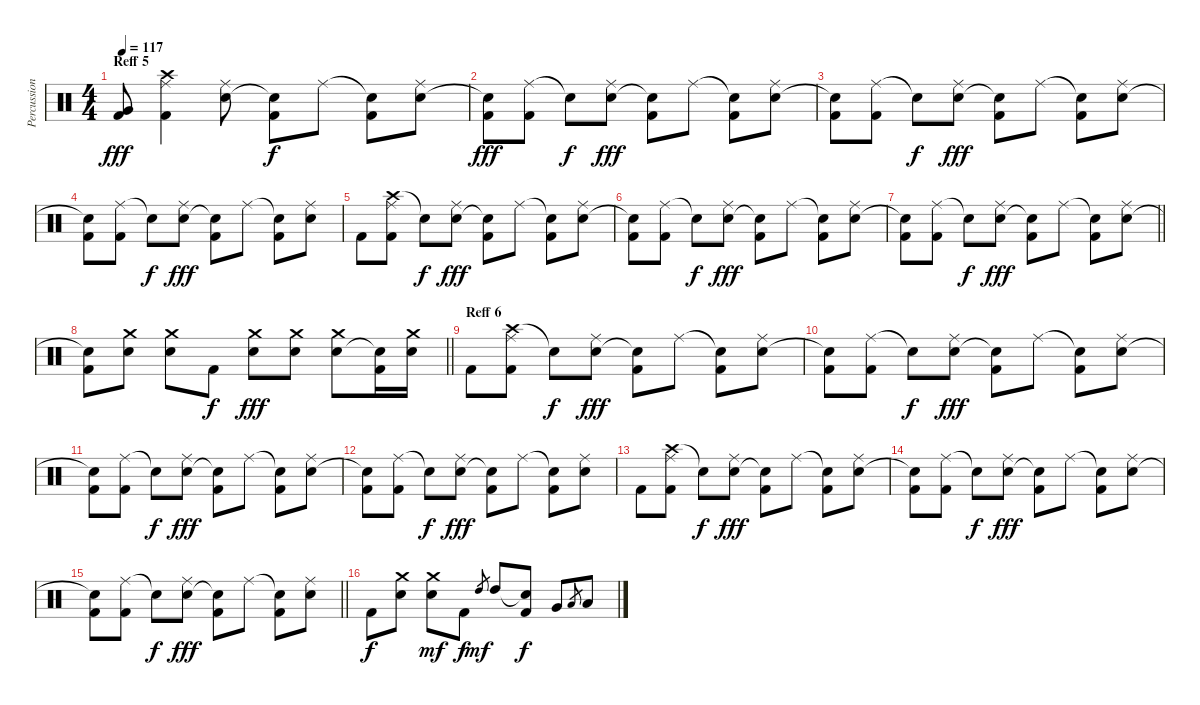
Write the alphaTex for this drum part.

\track ("Percussion 1" "Percussion") {instrument percussion}
\staff {score}
\articulation defaults
\ts (4 4)
\section ("" "Reff 5")
\tempo 117
\clef neutral
\ks c
("Very Low Tom (hit)" "Kick (hit) 2").8{dy fff} ("Crash high (hit)" "Ride (middle)" "Kick (hit) 2").4 ("Electric Snare (hit)" "Ride (middle)").8 ("Snare (hit)"{t} "Kick (hit) 2").8{dy f} "Ride (middle)".8 ("Snare (hit)"{t} "Kick (hit) 2").8 ("Electric Snare (hit)" "Ride (middle)").8 |
("Snare (hit)"{t} "Kick (hit) 2").8{dy fff} ("Ride (middle)" "Kick (hit) 2").8 "Snare (hit)"{t}.8{dy f} ("Electric Snare (hit)" "Ride (middle)").8{dy fff} ("Snare (hit)"{t} "Kick (hit) 2").8 "Ride (middle)".8 ("Snare (hit)"{t} "Kick (hit) 2").8 ("Electric Snare (hit)" "Ride (middle)").8 |
("Snare (hit)"{t} "Kick (hit) 2").8 ("Ride (middle)" "Kick (hit) 2").8 "Snare (hit)"{t}.8{dy f} ("Electric Snare (hit)" "Ride (middle)").8{dy fff} ("Snare (hit)"{t} "Kick (hit) 2").8 "Ride (middle)".8 ("Snare (hit)"{t} "Kick (hit) 2").8 ("Electric Snare (hit)" "Ride (middle)").8 |
("Snare (hit)"{t} "Kick (hit) 2").8 ("Ride (middle)" "Kick (hit) 2").8 "Snare (hit)"{t}.8{dy f} ("Electric Snare (hit)" "Ride (middle)").8{dy fff} ("Snare (hit)"{t} "Kick (hit) 2").8 "Ride (middle)".8 ("Snare (hit)"{t} "Kick (hit) 2").8 ("Electric Snare (hit)" "Ride (middle)").8 |
"Kick (hit) 2".8 ("Crash high (hit)" "Ride (middle)" "Kick (hit) 2").8 "Snare (hit)"{t}.8{dy f} ("Electric Snare (hit)" "Ride (middle)").8{dy fff} ("Snare (hit)"{t} "Kick (hit) 2").8 "Ride (middle)".8 ("Snare (hit)"{t} "Kick (hit) 2").8 ("Electric Snare (hit)" "Ride (middle)").8 |
("Snare (hit)"{t} "Kick (hit) 2").8 ("Ride (middle)" "Kick (hit) 2").8 "Snare (hit)"{t}.8{dy f} ("Electric Snare (hit)" "Ride (middle)").8{dy fff} ("Snare (hit)"{t} "Kick (hit) 2").8 "Ride (middle)".8 ("Snare (hit)"{t} "Kick (hit) 2").8 ("Electric Snare (hit)" "Ride (middle)").8 |
\barLineRight lightlight
("Snare (hit)"{t} "Kick (hit) 2").8 ("Ride (middle)" "Kick (hit) 2").8 "Snare (hit)"{t}.8{dy f} ("Electric Snare (hit)" "Ride (middle)").8{dy fff} ("Snare (hit)"{t} "Kick (hit) 2").8 "Ride (middle)".8 ("Snare (hit)"{t} "Kick (hit) 2").8 ("Electric Snare (hit)" "Ride (middle)").8 |
\barLineRight lightlight
("Snare (hit)"{t} "Kick (hit) 2").8 ("Electric Snare (hit)" "Crash medium (hit)").8 ("Electric Snare (hit)" "Crash medium (hit)").8 "Kick (hit) 2".8{dy f} ("Electric Snare (hit)" "Crash medium (hit)").8{dy fff} ("Electric Snare (hit)" "Crash medium (hit)").8 ("Electric Snare (hit)" "Crash medium (hit)").8 ("Snare (hit)"{t} "Kick (hit) 2").16 ("Electric Snare (hit)" "Crash medium (hit)").16 |
\section ("" "Reff 6")
"Kick (hit) 2".8 ("Crash high (hit)" "Ride (middle)" "Kick (hit) 2").8 "Snare (hit)"{t}.8{dy f} ("Electric Snare (hit)" "Ride (middle)").8{dy fff} ("Snare (hit)"{t} "Kick (hit) 2").8 "Ride (middle)".8 ("Snare (hit)"{t} "Kick (hit) 2").8 ("Electric Snare (hit)" "Ride (middle)").8 |
("Snare (hit)"{t} "Kick (hit) 2").8 ("Ride (middle)" "Kick (hit) 2").8 "Snare (hit)"{t}.8{dy f} ("Electric Snare (hit)" "Ride (middle)").8{dy fff} ("Snare (hit)"{t} "Kick (hit) 2").8 "Ride (middle)".8 ("Snare (hit)"{t} "Kick (hit) 2").8 ("Electric Snare (hit)" "Ride (middle)").8 |
("Snare (hit)"{t} "Kick (hit) 2").8 ("Ride (middle)" "Kick (hit) 2").8 "Snare (hit)"{t}.8{dy f} ("Electric Snare (hit)" "Ride (middle)").8{dy fff} ("Snare (hit)"{t} "Kick (hit) 2").8 "Ride (middle)".8 ("Snare (hit)"{t} "Kick (hit) 2").8 ("Electric Snare (hit)" "Ride (middle)").8 |
("Snare (hit)"{t} "Kick (hit) 2").8 ("Ride (middle)" "Kick (hit) 2").8 "Snare (hit)"{t}.8{dy f} ("Electric Snare (hit)" "Ride (middle)").8{dy fff} ("Snare (hit)"{t} "Kick (hit) 2").8 "Ride (middle)".8 ("Snare (hit)"{t} "Kick (hit) 2").8 ("Electric Snare (hit)" "Ride (middle)").8 |
"Kick (hit) 2".8 ("Crash high (hit)" "Ride (middle)" "Kick (hit) 2").8 "Snare (hit)"{t}.8{dy f} ("Electric Snare (hit)" "Ride (middle)").8{dy fff} ("Snare (hit)"{t} "Kick (hit) 2").8 "Ride (middle)".8 ("Snare (hit)"{t} "Kick (hit) 2").8 ("Electric Snare (hit)" "Ride (middle)").8 |
("Snare (hit)"{t} "Kick (hit) 2").8 ("Ride (middle)" "Kick (hit) 2").8 "Snare (hit)"{t}.8{dy f} ("Electric Snare (hit)" "Ride (middle)").8{dy fff} ("Snare (hit)"{t} "Kick (hit) 2").8 "Ride (middle)".8 ("Snare (hit)"{t} "Kick (hit) 2").8 ("Electric Snare (hit)" "Ride (middle)").8 |
\barLineRight lightlight
("Snare (hit)"{t} "Kick (hit) 2").8 ("Ride (middle)" "Kick (hit) 2").8 "Snare (hit)"{t}.8{dy f} ("Electric Snare (hit)" "Ride (middle)").8{dy fff} ("Snare (hit)"{t} "Kick (hit) 2").8 "Ride (middle)".8 ("Snare (hit)"{t} "Kick (hit) 2").8 ("Electric Snare (hit)" "Ride (middle)").8 |
"Kick (hit) 2".8{dy f} ("Electric Snare (hit)" "Crash medium (hit)").8 ("Electric Snare (hit)" "Crash medium (hit)").8{dy mf} "Kick (hit) 2".8{dy f} "High Tom (hit)".8{gr dy mf} "High Tom (hit)".8 ("Electric Snare (hit)"{t} "Kick (hit) 2").8{dy f} "Very Low Tom (hit)".8 "Low Tom (hit)".8{gr} "Low Tom (hit)".8
